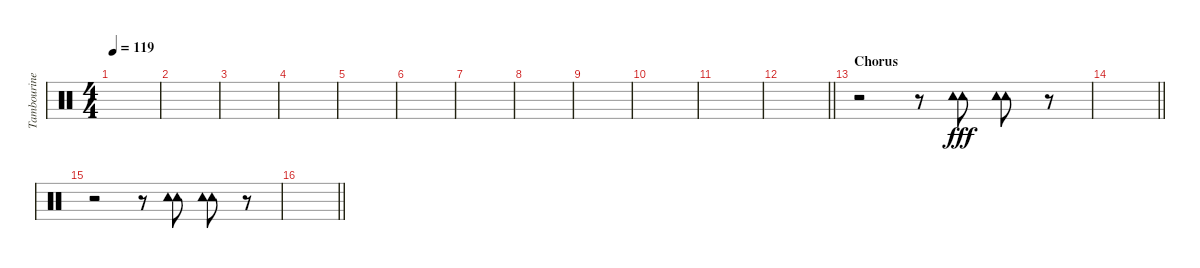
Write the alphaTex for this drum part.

\track ("Tambourine (John Lennon)" "Tambourine") {instrument percussion}
\staff {score}
\articulation defaults
\ts (4 4)
\tempo 119
\clef neutral
\ks c
|
|
|
|
|
|
|
|
|
|
|
\barLineRight lightlight
|
\section ("" "Chorus")
r.2 r.8 ("Tambourine (hit)" "Tambourine (hit)").8{bd 60 dy fff} ("Tambourine (hit)" "Tambourine (hit)").8{bd 60} r.8 |
\barLineRight lightlight
|
r.2 r.8 ("Tambourine (hit)" "Tambourine (hit)").8{bd 60} ("Tambourine (hit)" "Tambourine (hit)").8{bd 60} r.8 |
\barLineRight lightlight
